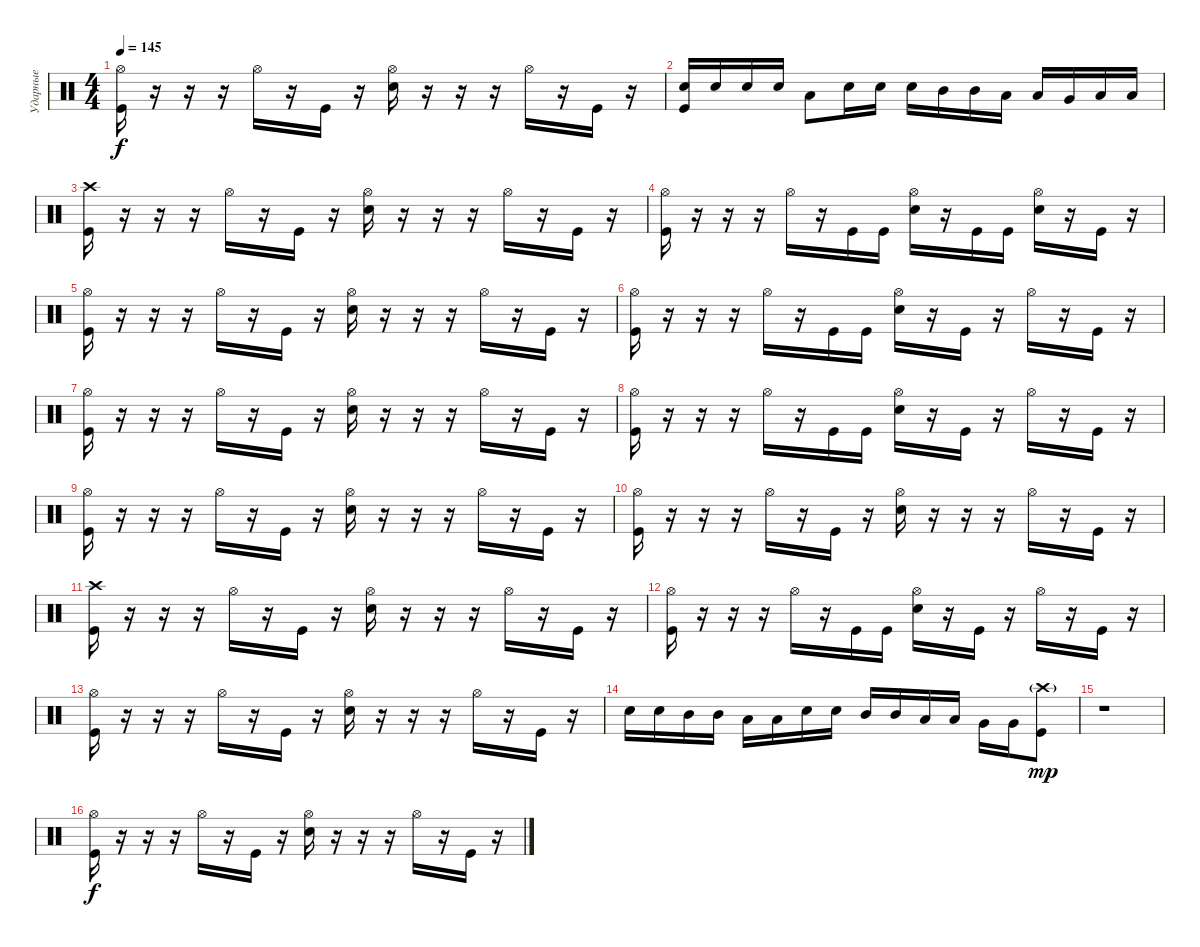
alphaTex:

\track ("Ударные" "Ударные") {instrument percussion}
\staff {score}
\articulation defaults
\ts (4 4)
\tempo 145
\clef neutral
\ks c
("Hi-Hat (open)" "Kick (hit)").16{dy f} r.16 r.16 r.16 "Hi-Hat (open)".16 r.16 "Kick (hit)".16 r.16 ("Hi-Hat (open)" "Snare (hit) 2").16 r.16 r.16 r.16 "Hi-Hat (open)".16 r.16 "Kick (hit)".16 r.16 |
("Snare (hit) 2" "Kick (hit)").16 "Snare (hit) 2".16 "Snare (hit) 2".16 "Snare (hit) 2".16 "Low Tom (hit)".8 "Snare (hit) 2".16 "Snare (hit) 2".16 "Snare (hit) 2".16 "Mid Tom (hit)".16 "Mid Tom (hit)".16 "Low Tom (hit)".16 "Low Tom (hit)".16 "Very Low Tom (hit)".16 "Low Floor Tom (hit)".16 "Low Floor Tom (hit)".16 |
("Crash high (hit)" "Kick (hit)").16 r.16 r.16 r.16 "Hi-Hat (open)".16 r.16 "Kick (hit)".16 r.16 ("Hi-Hat (open)" "Snare (hit) 2").16 r.16 r.16 r.16 "Hi-Hat (open)".16 r.16 "Kick (hit)".16 r.16 |
("Hi-Hat (open)" "Kick (hit)").16 r.16 r.16 r.16 "Hi-Hat (open)".16 r.16 "Kick (hit)".16 "Kick (hit)".16 ("Hi-Hat (open)" "Snare (hit) 2").16 r.16 "Kick (hit)".16 "Kick (hit)".16 ("Hi-Hat (open)" "Snare (hit) 2").16 r.16 "Kick (hit)".16 r.16 |
("Hi-Hat (open)" "Kick (hit)").16 r.16 r.16 r.16 "Hi-Hat (open)".16 r.16 "Kick (hit)".16 r.16 ("Hi-Hat (open)" "Snare (hit) 2").16 r.16 r.16 r.16 "Hi-Hat (open)".16 r.16 "Kick (hit)".16 r.16 |
("Hi-Hat (open)" "Kick (hit)").16 r.16 r.16 r.16 "Hi-Hat (open)".16 r.16 "Kick (hit)".16 "Kick (hit)".16 ("Hi-Hat (open)" "Snare (hit) 2").16 r.16 "Kick (hit)".16 r.16 "Hi-Hat (open)".16 r.16 "Kick (hit)".16 r.16 |
("Hi-Hat (open)" "Kick (hit)").16 r.16 r.16 r.16 "Hi-Hat (open)".16 r.16 "Kick (hit)".16 r.16 ("Hi-Hat (open)" "Snare (hit) 2").16 r.16 r.16 r.16 "Hi-Hat (open)".16 r.16 "Kick (hit)".16 r.16 |
("Hi-Hat (open)" "Kick (hit)").16 r.16 r.16 r.16 "Hi-Hat (open)".16 r.16 "Kick (hit)".16 "Kick (hit)".16 ("Hi-Hat (open)" "Snare (hit) 2").16 r.16 "Kick (hit)".16 r.16 "Hi-Hat (open)".16 r.16 "Kick (hit)".16 r.16 |
("Hi-Hat (open)" "Kick (hit)").16 r.16 r.16 r.16 "Hi-Hat (open)".16 r.16 "Kick (hit)".16 r.16 ("Hi-Hat (open)" "Snare (hit) 2").16 r.16 r.16 r.16 "Hi-Hat (open)".16 r.16 "Kick (hit)".16 r.16 |
("Hi-Hat (open)" "Kick (hit)").16 r.16 r.16 r.16 "Hi-Hat (open)".16 r.16 "Kick (hit)".16 r.16 ("Hi-Hat (open)" "Snare (hit) 2").16 r.16 r.16 r.16 "Hi-Hat (open)".16 r.16 "Kick (hit)".16 r.16 |
("Crash high (hit)" "Kick (hit)").16 r.16 r.16 r.16 "Hi-Hat (open)".16 r.16 "Kick (hit)".16 r.16 ("Hi-Hat (open)" "Snare (hit) 2").16 r.16 r.16 r.16 "Hi-Hat (open)".16 r.16 "Kick (hit)".16 r.16 |
("Hi-Hat (open)" "Kick (hit)").16 r.16 r.16 r.16 "Hi-Hat (open)".16 r.16 "Kick (hit)".16 "Kick (hit)".16 ("Hi-Hat (open)" "Snare (hit) 2").16 r.16 "Kick (hit)".16 r.16 "Hi-Hat (open)".16 r.16 "Kick (hit)".16 r.16 |
("Hi-Hat (open)" "Kick (hit)").16 r.16 r.16 r.16 "Hi-Hat (open)".16 r.16 "Kick (hit)".16 r.16 ("Hi-Hat (open)" "Snare (hit) 2").16 r.16 r.16 r.16 "Hi-Hat (open)".16 r.16 "Kick (hit)".16 r.16 |
"Snare (hit) 2".16 "Snare (hit) 2".16 "Mid Tom (hit)".16 "Mid Tom (hit)".16 "Low Tom (hit)".16 "Low Tom (hit)".16 "Snare (hit) 2".16 "Snare (hit) 2".16 "Mid Tom (hit)".16 "Mid Tom (hit)".16 "Low Tom (hit)".16 "Low Tom (hit)".16 "Very Low Tom (hit)".16 "Very Low Tom (hit)".16 ("Crash high (hit)"{g} "Kick (hit)").8{dy mp} |
r.1 |
("Hi-Hat (open)" "Kick (hit)").16{dy f} r.16 r.16 r.16 "Hi-Hat (open)".16 r.16 "Kick (hit)".16 r.16 ("Hi-Hat (open)" "Snare (hit) 2").16 r.16 r.16 r.16 "Hi-Hat (open)".16 r.16 "Kick (hit)".16 r.16
